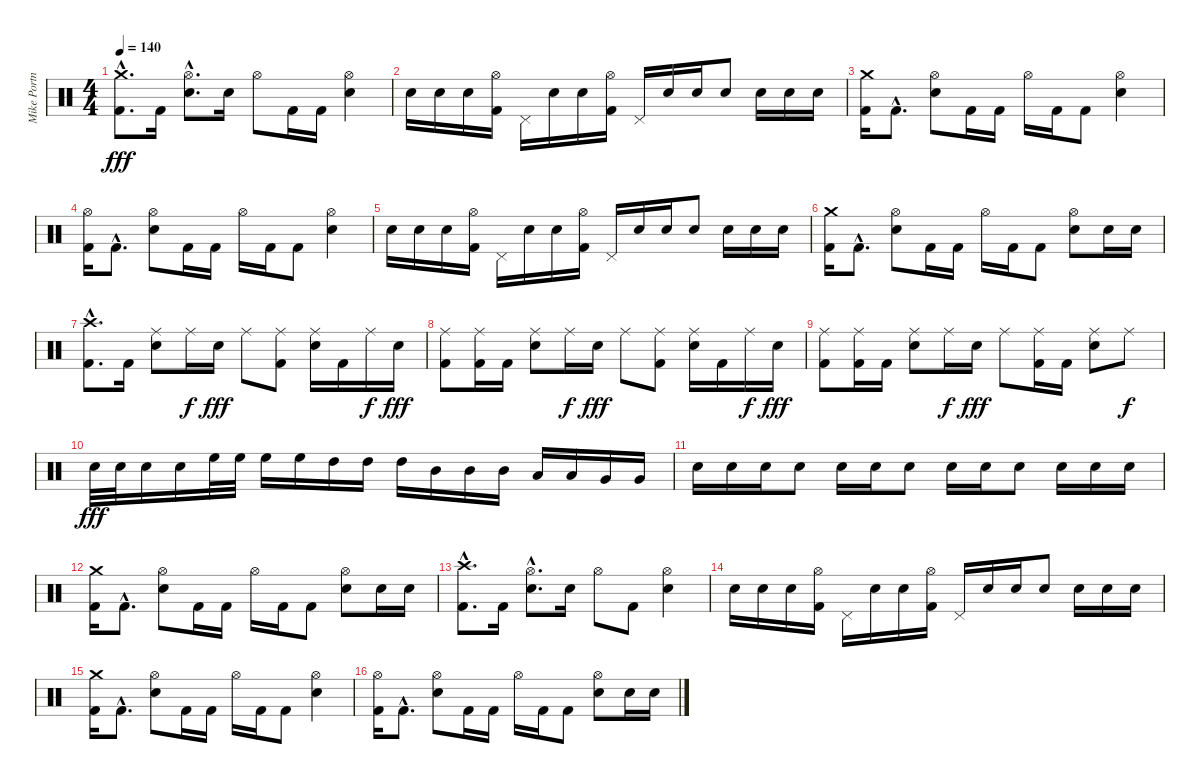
\track ("Mike Portnoy" "Mike Portn") {instrument percussion}
\staff {score}
\articulation defaults
\ts (4 4)
\tempo 140
\clef neutral
\ks c
("Crash medium (hit)"{hac} "Kick (hit) 2"{hac}).8{d dy fff} "Kick (hit) 2".16 ("Hi-Hat (open)"{hac} "Snare (hit) 2"{hac}).8{d} "Snare (hit) 2".16 "Hi-Hat (open)".8 "Kick (hit) 2".16 "Kick (hit) 2".16 ("Hi-Hat (open)" "Snare (hit) 2").4 |
"Snare (hit) 2".16 "Snare (hit) 2".16 "Snare (hit) 2".16 ("Hi-Hat (open)" "Kick (hit) 2").16 "Pedal Hi-Hat (hit)".16 "Snare (hit) 2".16 "Snare (hit) 2".16 ("Hi-Hat (open)" "Kick (hit) 2").16 "Pedal Hi-Hat (hit)".16 "Snare (hit) 2".16 "Snare (hit) 2".16 "Snare (hit) 2".8 "Snare (hit) 2".16 "Snare (hit) 2".16 "Snare (hit) 2".16 |
("Crash medium (hit)" "Kick (hit) 2").16 "Kick (hit) 2"{hac}.8{d} ("Hi-Hat (open)" "Snare (hit) 2").8 "Kick (hit) 2".16 "Kick (hit) 2".16 "Hi-Hat (open)".16 "Kick (hit) 2".16 "Kick (hit) 2".8 ("Hi-Hat (open)" "Snare (hit) 2").4 |
("Hi-Hat (open)" "Kick (hit) 2").16 "Kick (hit) 2"{hac}.8{d} ("Hi-Hat (open)" "Snare (hit) 2").8 "Kick (hit) 2".16 "Kick (hit) 2".16 "Hi-Hat (open)".16 "Kick (hit) 2".16 "Kick (hit) 2".8 ("Hi-Hat (open)" "Snare (hit) 2").4 |
"Snare (hit) 2".16 "Snare (hit) 2".16 "Snare (hit) 2".16 ("Hi-Hat (open)" "Kick (hit) 2").16 "Pedal Hi-Hat (hit)".16 "Snare (hit) 2".16 "Snare (hit) 2".16 ("Hi-Hat (open)" "Kick (hit) 2").16 "Pedal Hi-Hat (hit)".16 "Snare (hit) 2".16 "Snare (hit) 2".16 "Snare (hit) 2".8 "Snare (hit) 2".16 "Snare (hit) 2".16 "Snare (hit) 2".16 |
("Crash medium (hit)" "Kick (hit) 2").16 "Kick (hit) 2"{hac}.8{d} ("Hi-Hat (open)" "Snare (hit) 2").8 "Kick (hit) 2".16 "Kick (hit) 2".16 "Hi-Hat (open)".16 "Kick (hit) 2".16 "Kick (hit) 2".8 ("Hi-Hat (open)" "Snare (hit) 2").8 "Snare (hit) 2".16 "Snare (hit) 2".16 |
("Crash high (hit)"{hac} "Kick (hit) 2"{hac}).8{d} "Kick (hit) 2".16 ("Ride (middle)" "Snare (hit) 2").8 "Ride (middle)".16{dy f} "Snare (hit) 2".16{dy fff} "Ride (middle)".8 ("Ride (middle)" "Kick (hit) 2").8 ("Ride (middle)" "Snare (hit) 2").16 "Kick (hit) 2".16 "Ride (middle)".16{dy f} "Snare (hit) 2".16{dy fff} |
("Ride (middle)" "Kick (hit) 2").8 ("Ride (middle)" "Kick (hit) 2").16 "Kick (hit) 2".16 ("Ride (middle)" "Snare (hit) 2").8 "Ride (middle)".16{dy f} "Snare (hit) 2".16{dy fff} "Ride (middle)".8 ("Ride (middle)" "Kick (hit) 2").8 ("Ride (middle)" "Snare (hit) 2").16 "Kick (hit) 2".16 "Ride (middle)".16{dy f} "Snare (hit) 2".16{dy fff} |
("Ride (middle)" "Kick (hit) 2").8 ("Ride (middle)" "Kick (hit) 2").16 "Kick (hit) 2".16 ("Ride (middle)" "Snare (hit) 2").8 "Ride (middle)".16{dy f} "Snare (hit) 2".16{dy fff} "Ride (middle)".8 ("Ride (middle)" "Kick (hit) 2").16 "Kick (hit) 2".16 ("Ride (middle)" "Snare (hit) 2").8 "Ride (middle)".8{dy f} |
"Snare (hit) 2".32{dy fff} "Snare (hit) 2".32 "Snare (hit) 2".16 "Snare (hit) 2".16 "High Floor Tom (hit)".32 "High Floor Tom (hit)".32 "High Floor Tom (hit)".16 "High Floor Tom (hit)".16 "High Tom (hit)".16 "High Tom (hit)".16 "High Tom (hit)".16 "Mid Tom (hit)".16 "Mid Tom (hit)".16 "Mid Tom (hit)".16 "Low Tom (hit)".16 "Low Tom (hit)".16 "Very Low Tom (hit)".16 "Very Low Tom (hit)".16 |
"Snare (hit) 2".16 "Snare (hit) 2".16 "Snare (hit) 2".16 "Snare (hit) 2".8 "Snare (hit) 2".16 "Snare (hit) 2".16 "Snare (hit) 2".8 "Snare (hit) 2".16 "Snare (hit) 2".16 "Snare (hit) 2".8 "Snare (hit) 2".16 "Snare (hit) 2".16 "Snare (hit) 2".16 |
("Crash medium (hit)" "Kick (hit) 2").16 "Kick (hit) 2"{hac}.8{d} ("Hi-Hat (open)" "Snare (hit) 2").8 "Kick (hit) 2".16 "Kick (hit) 2".16 "Hi-Hat (open)".16 "Kick (hit) 2".16 "Kick (hit) 2".8 ("Hi-Hat (open)" "Snare (hit) 2").8 "Snare (hit) 2".16 "Snare (hit) 2".16 |
("Crash high (hit)"{hac} "Kick (hit) 2"{hac}).8{d} "Kick (hit) 2".16 ("Hi-Hat (open)"{hac} "Snare (hit) 2"{hac}).8{d} "Snare (hit) 2".16 "Hi-Hat (open)".8 "Kick (hit) 2".8 ("Hi-Hat (open)" "Snare (hit) 2").4 |
"Snare (hit) 2".16 "Snare (hit) 2".16 "Snare (hit) 2".16 ("Hi-Hat (open)" "Kick (hit) 2").16 "Pedal Hi-Hat (hit)".16 "Snare (hit) 2".16 "Snare (hit) 2".16 ("Hi-Hat (open)" "Kick (hit) 2").16 "Pedal Hi-Hat (hit)".16 "Snare (hit) 2".16 "Snare (hit) 2".16 "Snare (hit) 2".8 "Snare (hit) 2".16 "Snare (hit) 2".16 "Snare (hit) 2".16 |
("Crash medium (hit)" "Kick (hit) 2").16 "Kick (hit) 2"{hac}.8{d} ("Hi-Hat (open)" "Snare (hit) 2").8 "Kick (hit) 2".16 "Kick (hit) 2".16 "Hi-Hat (open)".16 "Kick (hit) 2".16 "Kick (hit) 2".8 ("Hi-Hat (open)" "Snare (hit) 2").4 |
("Hi-Hat (open)" "Kick (hit) 2").16 "Kick (hit) 2"{hac}.8{d} ("Hi-Hat (open)" "Snare (hit) 2").8 "Kick (hit) 2".16 "Kick (hit) 2".16 "Hi-Hat (open)".16 "Kick (hit) 2".16 "Kick (hit) 2".8 ("Hi-Hat (open)" "Snare (hit) 2").8 "Snare (hit) 2".16 "Snare (hit) 2".16
